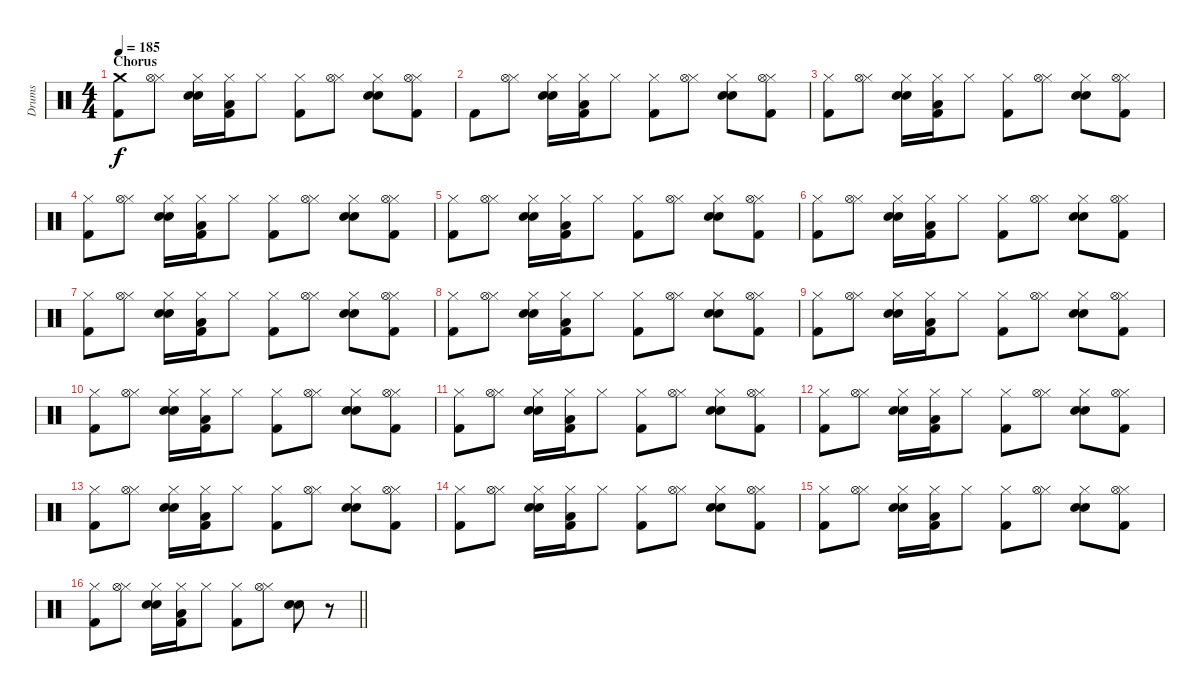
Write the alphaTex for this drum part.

\track ("Drums" "Drums") {instrument percussion}
\staff {score}
\articulation defaults
\ts (4 4)
\section ("" "Chorus")
\tempo 185
\clef neutral
\ks c
("Crash medium (hit)" "Kick (hit) 2").8{dy f} ("Hi-Hat (closed)" "Hi-Hat (open)").8 ("Hi-Hat (closed)" "Snare (hit) 2" "Electric Snare (hit)").16 ("Hi-Hat (closed)" "Low Floor Tom (hit)" "Kick (hit) 2").16 "Hi-Hat (closed)".8 ("Hi-Hat (closed)" "Kick (hit) 2").8 ("Hi-Hat (closed)" "Hi-Hat (open)").8 ("Hi-Hat (closed)" "Snare (hit) 2" "Electric Snare (hit)").8 ("Hi-Hat (closed)" "Hi-Hat (open)" "Kick (hit) 2").8 |
"Kick (hit) 2".8 ("Hi-Hat (closed)" "Hi-Hat (open)").8 ("Hi-Hat (closed)" "Snare (hit) 2" "Electric Snare (hit)").16 ("Hi-Hat (closed)" "Low Floor Tom (hit)" "Kick (hit) 2").16 "Hi-Hat (closed)".8 ("Hi-Hat (closed)" "Kick (hit) 2").8 ("Hi-Hat (closed)" "Hi-Hat (open)").8 ("Hi-Hat (closed)" "Snare (hit) 2" "Electric Snare (hit)").8 ("Hi-Hat (closed)" "Hi-Hat (open)" "Kick (hit) 2").8 |
("Hi-Hat (closed)" "Kick (hit) 2").8 ("Hi-Hat (closed)" "Hi-Hat (open)").8 ("Hi-Hat (closed)" "Snare (hit) 2" "Electric Snare (hit)").16 ("Hi-Hat (closed)" "Low Floor Tom (hit)" "Kick (hit) 2").16 "Hi-Hat (closed)".8 ("Hi-Hat (closed)" "Kick (hit) 2").8 ("Hi-Hat (closed)" "Hi-Hat (open)").8 ("Hi-Hat (closed)" "Snare (hit) 2" "Electric Snare (hit)").8 ("Hi-Hat (closed)" "Hi-Hat (open)" "Kick (hit) 2").8 |
("Hi-Hat (closed)" "Kick (hit) 2").8 ("Hi-Hat (closed)" "Hi-Hat (open)").8 ("Hi-Hat (closed)" "Snare (hit) 2" "Electric Snare (hit)").16 ("Hi-Hat (closed)" "Low Floor Tom (hit)" "Kick (hit) 2").16 "Hi-Hat (closed)".8 ("Hi-Hat (closed)" "Kick (hit) 2").8 ("Hi-Hat (closed)" "Hi-Hat (open)").8 ("Hi-Hat (closed)" "Snare (hit) 2" "Electric Snare (hit)").8 ("Hi-Hat (closed)" "Hi-Hat (open)" "Kick (hit) 2").8 |
("Hi-Hat (closed)" "Kick (hit) 2").8 ("Hi-Hat (closed)" "Hi-Hat (open)").8 ("Hi-Hat (closed)" "Snare (hit) 2" "Electric Snare (hit)").16 ("Hi-Hat (closed)" "Low Floor Tom (hit)" "Kick (hit) 2").16 "Hi-Hat (closed)".8 ("Hi-Hat (closed)" "Kick (hit) 2").8 ("Hi-Hat (closed)" "Hi-Hat (open)").8 ("Hi-Hat (closed)" "Snare (hit) 2" "Electric Snare (hit)").8 ("Hi-Hat (closed)" "Hi-Hat (open)" "Kick (hit) 2").8 |
("Hi-Hat (closed)" "Kick (hit) 2").8 ("Hi-Hat (closed)" "Hi-Hat (open)").8 ("Hi-Hat (closed)" "Snare (hit) 2" "Electric Snare (hit)").16 ("Hi-Hat (closed)" "Low Floor Tom (hit)" "Kick (hit) 2").16 "Hi-Hat (closed)".8 ("Hi-Hat (closed)" "Kick (hit) 2").8 ("Hi-Hat (closed)" "Hi-Hat (open)").8 ("Hi-Hat (closed)" "Snare (hit) 2" "Electric Snare (hit)").8 ("Hi-Hat (closed)" "Hi-Hat (open)" "Kick (hit) 2").8 |
("Hi-Hat (closed)" "Kick (hit) 2").8 ("Hi-Hat (closed)" "Hi-Hat (open)").8 ("Hi-Hat (closed)" "Snare (hit) 2" "Electric Snare (hit)").16 ("Hi-Hat (closed)" "Low Floor Tom (hit)" "Kick (hit) 2").16 "Hi-Hat (closed)".8 ("Hi-Hat (closed)" "Kick (hit) 2").8 ("Hi-Hat (closed)" "Hi-Hat (open)").8 ("Hi-Hat (closed)" "Snare (hit) 2" "Electric Snare (hit)").8 ("Hi-Hat (closed)" "Hi-Hat (open)" "Kick (hit) 2").8 |
("Hi-Hat (closed)" "Kick (hit) 2").8 ("Hi-Hat (closed)" "Hi-Hat (open)").8 ("Hi-Hat (closed)" "Snare (hit) 2" "Electric Snare (hit)").16 ("Hi-Hat (closed)" "Low Floor Tom (hit)" "Kick (hit) 2").16 "Hi-Hat (closed)".8 ("Hi-Hat (closed)" "Kick (hit) 2").8 ("Hi-Hat (closed)" "Hi-Hat (open)").8 ("Hi-Hat (closed)" "Snare (hit) 2" "Electric Snare (hit)").8 ("Hi-Hat (closed)" "Hi-Hat (open)" "Kick (hit) 2").8 |
("Hi-Hat (closed)" "Kick (hit) 2").8 ("Hi-Hat (closed)" "Hi-Hat (open)").8 ("Hi-Hat (closed)" "Snare (hit) 2" "Electric Snare (hit)").16 ("Hi-Hat (closed)" "Low Floor Tom (hit)" "Kick (hit) 2").16 "Hi-Hat (closed)".8 ("Hi-Hat (closed)" "Kick (hit) 2").8 ("Hi-Hat (closed)" "Hi-Hat (open)").8 ("Hi-Hat (closed)" "Snare (hit) 2" "Electric Snare (hit)").8 ("Hi-Hat (closed)" "Hi-Hat (open)" "Kick (hit) 2").8 |
("Hi-Hat (closed)" "Kick (hit) 2").8 ("Hi-Hat (closed)" "Hi-Hat (open)").8 ("Hi-Hat (closed)" "Snare (hit) 2" "Electric Snare (hit)").16 ("Hi-Hat (closed)" "Low Floor Tom (hit)" "Kick (hit) 2").16 "Hi-Hat (closed)".8 ("Hi-Hat (closed)" "Kick (hit) 2").8 ("Hi-Hat (closed)" "Hi-Hat (open)").8 ("Hi-Hat (closed)" "Snare (hit) 2" "Electric Snare (hit)").8 ("Hi-Hat (closed)" "Hi-Hat (open)" "Kick (hit) 2").8 |
("Hi-Hat (closed)" "Kick (hit) 2").8 ("Hi-Hat (closed)" "Hi-Hat (open)").8 ("Hi-Hat (closed)" "Snare (hit) 2" "Electric Snare (hit)").16 ("Hi-Hat (closed)" "Low Floor Tom (hit)" "Kick (hit) 2").16 "Hi-Hat (closed)".8 ("Hi-Hat (closed)" "Kick (hit) 2").8 ("Hi-Hat (closed)" "Hi-Hat (open)").8 ("Hi-Hat (closed)" "Snare (hit) 2" "Electric Snare (hit)").8 ("Hi-Hat (closed)" "Hi-Hat (open)" "Kick (hit) 2").8 |
("Hi-Hat (closed)" "Kick (hit) 2").8 ("Hi-Hat (closed)" "Hi-Hat (open)").8 ("Hi-Hat (closed)" "Snare (hit) 2" "Electric Snare (hit)").16 ("Hi-Hat (closed)" "Low Floor Tom (hit)" "Kick (hit) 2").16 "Hi-Hat (closed)".8 ("Hi-Hat (closed)" "Kick (hit) 2").8 ("Hi-Hat (closed)" "Hi-Hat (open)").8 ("Hi-Hat (closed)" "Snare (hit) 2" "Electric Snare (hit)").8 ("Hi-Hat (closed)" "Hi-Hat (open)" "Kick (hit) 2").8 |
("Hi-Hat (closed)" "Kick (hit) 2").8 ("Hi-Hat (closed)" "Hi-Hat (open)").8 ("Hi-Hat (closed)" "Snare (hit) 2" "Electric Snare (hit)").16 ("Hi-Hat (closed)" "Low Floor Tom (hit)" "Kick (hit) 2").16 "Hi-Hat (closed)".8 ("Hi-Hat (closed)" "Kick (hit) 2").8 ("Hi-Hat (closed)" "Hi-Hat (open)").8 ("Hi-Hat (closed)" "Snare (hit) 2" "Electric Snare (hit)").8 ("Hi-Hat (closed)" "Hi-Hat (open)" "Kick (hit) 2").8 |
("Hi-Hat (closed)" "Kick (hit) 2").8 ("Hi-Hat (closed)" "Hi-Hat (open)").8 ("Hi-Hat (closed)" "Snare (hit) 2" "Electric Snare (hit)").16 ("Hi-Hat (closed)" "Low Floor Tom (hit)" "Kick (hit) 2").16 "Hi-Hat (closed)".8 ("Hi-Hat (closed)" "Kick (hit) 2").8 ("Hi-Hat (closed)" "Hi-Hat (open)").8 ("Hi-Hat (closed)" "Snare (hit) 2" "Electric Snare (hit)").8 ("Hi-Hat (closed)" "Hi-Hat (open)" "Kick (hit) 2").8 |
("Hi-Hat (closed)" "Kick (hit) 2").8 ("Hi-Hat (closed)" "Hi-Hat (open)").8 ("Hi-Hat (closed)" "Snare (hit) 2" "Electric Snare (hit)").16 ("Hi-Hat (closed)" "Low Floor Tom (hit)" "Kick (hit) 2").16 "Hi-Hat (closed)".8 ("Hi-Hat (closed)" "Kick (hit) 2").8 ("Hi-Hat (closed)" "Hi-Hat (open)").8 ("Hi-Hat (closed)" "Snare (hit) 2" "Electric Snare (hit)").8 ("Hi-Hat (closed)" "Hi-Hat (open)" "Kick (hit) 2").8 |
\barLineRight lightlight
("Hi-Hat (closed)" "Kick (hit) 2").8 ("Hi-Hat (closed)" "Hi-Hat (open)").8 ("Hi-Hat (closed)" "Snare (hit) 2" "Electric Snare (hit)").16 ("Hi-Hat (closed)" "Low Floor Tom (hit)" "Kick (hit) 2").16 "Hi-Hat (closed)".8 ("Hi-Hat (closed)" "Kick (hit) 2").8 ("Hi-Hat (closed)" "Hi-Hat (open)").8 ("Snare (hit) 2" "Electric Snare (hit)").8 r.8
